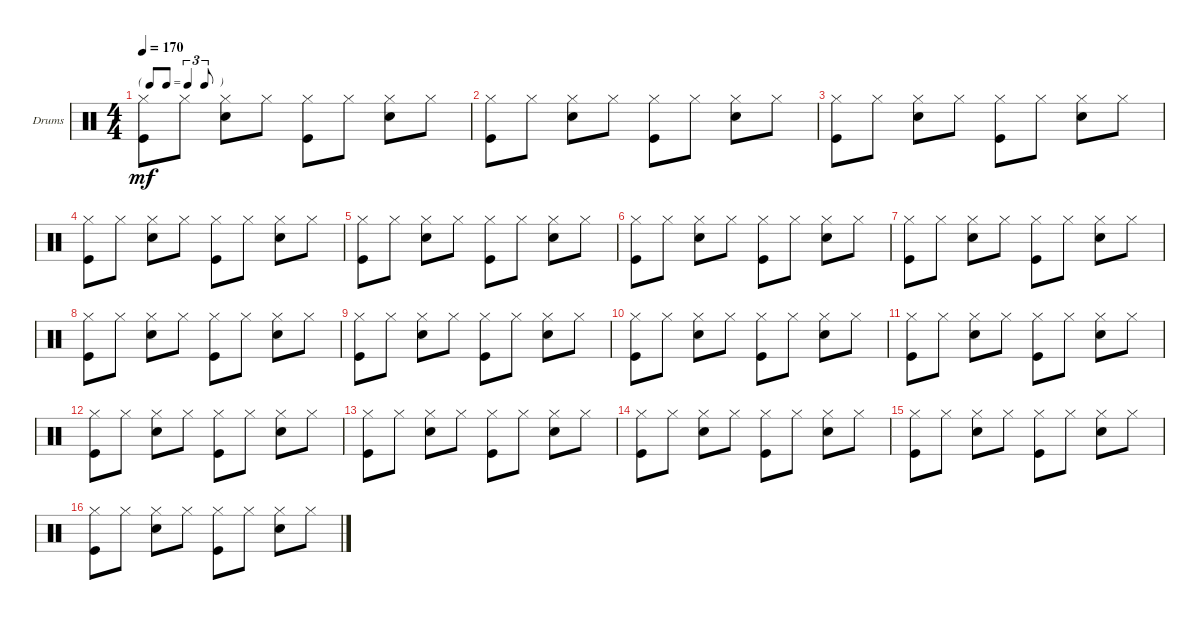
\defaultSystemsLayout 4
\bracketExtendMode groupsimilarinstruments
\firstSystemTrackNameOrientation horizontal
\otherSystemsTrackNameOrientation horizontal
\track ("Drumkit" "Drums") {instrument percussion}
\staff {score}
\articulation defaults
\ts (4 4)
\tf triplet8th
\tempo 170
\clef neutral
\scale
0.333333
\ks c
("Hi-Hat (closed)" "Kick (hit)").8{dy mf} "Hi-Hat (closed)".8 ("Hi-Hat (closed)" "Snare (hit) 2").8 "Hi-Hat (closed)".8 ("Hi-Hat (closed)" "Kick (hit)").8 "Hi-Hat (closed)".8 ("Hi-Hat (closed)" "Snare (hit) 2").8 "Hi-Hat (closed)".8 |
\scale
0.333333 ("Hi-Hat (closed)" "Kick (hit)").8 "Hi-Hat (closed)".8 ("Hi-Hat (closed)" "Snare (hit) 2").8 "Hi-Hat (closed)".8 ("Hi-Hat (closed)" "Kick (hit)").8 "Hi-Hat (closed)".8 ("Hi-Hat (closed)" "Snare (hit) 2").8 "Hi-Hat (closed)".8 |
\scale
0.333333 ("Hi-Hat (closed)" "Kick (hit)").8 "Hi-Hat (closed)".8 ("Hi-Hat (closed)" "Snare (hit) 2").8 "Hi-Hat (closed)".8 ("Hi-Hat (closed)" "Kick (hit)").8 "Hi-Hat (closed)".8 ("Hi-Hat (closed)" "Snare (hit) 2").8 "Hi-Hat (closed)".8 |
\scale
0.333333 ("Hi-Hat (closed)" "Kick (hit)").8 "Hi-Hat (closed)".8 ("Hi-Hat (closed)" "Snare (hit) 2").8 "Hi-Hat (closed)".8 ("Hi-Hat (closed)" "Kick (hit)").8 "Hi-Hat (closed)".8 ("Hi-Hat (closed)" "Snare (hit) 2").8 "Hi-Hat (closed)".8 |
\scale
0.333333 ("Hi-Hat (closed)" "Kick (hit)").8 "Hi-Hat (closed)".8 ("Hi-Hat (closed)" "Snare (hit) 2").8 "Hi-Hat (closed)".8 ("Hi-Hat (closed)" "Kick (hit)").8 "Hi-Hat (closed)".8 ("Hi-Hat (closed)" "Snare (hit) 2").8 "Hi-Hat (closed)".8 |
\scale
0.333333 ("Hi-Hat (closed)" "Kick (hit)").8 "Hi-Hat (closed)".8 ("Hi-Hat (closed)" "Snare (hit) 2").8 "Hi-Hat (closed)".8 ("Hi-Hat (closed)" "Kick (hit)").8 "Hi-Hat (closed)".8 ("Hi-Hat (closed)" "Snare (hit) 2").8 "Hi-Hat (closed)".8 |
\scale
0.333333 ("Hi-Hat (closed)" "Kick (hit)").8 "Hi-Hat (closed)".8 ("Hi-Hat (closed)" "Snare (hit) 2").8 "Hi-Hat (closed)".8 ("Hi-Hat (closed)" "Kick (hit)").8 "Hi-Hat (closed)".8 ("Hi-Hat (closed)" "Snare (hit) 2").8 "Hi-Hat (closed)".8 |
\scale
0.333333 ("Hi-Hat (closed)" "Kick (hit)").8 "Hi-Hat (closed)".8 ("Hi-Hat (closed)" "Snare (hit) 2").8 "Hi-Hat (closed)".8 ("Hi-Hat (closed)" "Kick (hit)").8 "Hi-Hat (closed)".8 ("Hi-Hat (closed)" "Snare (hit) 2").8 "Hi-Hat (closed)".8 |
\scale
0.333333 ("Hi-Hat (closed)" "Kick (hit)").8 "Hi-Hat (closed)".8 ("Hi-Hat (closed)" "Snare (hit) 2").8 "Hi-Hat (closed)".8 ("Hi-Hat (closed)" "Kick (hit)").8 "Hi-Hat (closed)".8 ("Hi-Hat (closed)" "Snare (hit) 2").8 "Hi-Hat (closed)".8 |
\scale
0.333333 ("Hi-Hat (closed)" "Kick (hit)").8 "Hi-Hat (closed)".8 ("Hi-Hat (closed)" "Snare (hit) 2").8 "Hi-Hat (closed)".8 ("Hi-Hat (closed)" "Kick (hit)").8 "Hi-Hat (closed)".8 ("Hi-Hat (closed)" "Snare (hit) 2").8 "Hi-Hat (closed)".8 |
\scale
0.333333 ("Hi-Hat (closed)" "Kick (hit)").8 "Hi-Hat (closed)".8 ("Hi-Hat (closed)" "Snare (hit) 2").8 "Hi-Hat (closed)".8 ("Hi-Hat (closed)" "Kick (hit)").8 "Hi-Hat (closed)".8 ("Hi-Hat (closed)" "Snare (hit) 2").8 "Hi-Hat (closed)".8 |
\scale
0.333333 ("Hi-Hat (closed)" "Kick (hit)").8 "Hi-Hat (closed)".8 ("Hi-Hat (closed)" "Snare (hit) 2").8 "Hi-Hat (closed)".8 ("Hi-Hat (closed)" "Kick (hit)").8 "Hi-Hat (closed)".8 ("Hi-Hat (closed)" "Snare (hit) 2").8 "Hi-Hat (closed)".8 |
\scale
0.333333 ("Hi-Hat (closed)" "Kick (hit)").8 "Hi-Hat (closed)".8 ("Hi-Hat (closed)" "Snare (hit) 2").8 "Hi-Hat (closed)".8 ("Hi-Hat (closed)" "Kick (hit)").8 "Hi-Hat (closed)".8 ("Hi-Hat (closed)" "Snare (hit) 2").8 "Hi-Hat (closed)".8 |
\scale
0.333333 ("Hi-Hat (closed)" "Kick (hit)").8 "Hi-Hat (closed)".8 ("Hi-Hat (closed)" "Snare (hit) 2").8 "Hi-Hat (closed)".8 ("Hi-Hat (closed)" "Kick (hit)").8 "Hi-Hat (closed)".8 ("Hi-Hat (closed)" "Snare (hit) 2").8 "Hi-Hat (closed)".8 |
\scale
0.333333 ("Hi-Hat (closed)" "Kick (hit)").8 "Hi-Hat (closed)".8 ("Hi-Hat (closed)" "Snare (hit) 2").8 "Hi-Hat (closed)".8 ("Hi-Hat (closed)" "Kick (hit)").8 "Hi-Hat (closed)".8 ("Hi-Hat (closed)" "Snare (hit) 2").8 "Hi-Hat (closed)".8 |
\scale
0.333333 ("Hi-Hat (closed)" "Kick (hit)").8 "Hi-Hat (closed)".8 ("Hi-Hat (closed)" "Snare (hit) 2").8 "Hi-Hat (closed)".8 ("Hi-Hat (closed)" "Kick (hit)").8 "Hi-Hat (closed)".8 ("Hi-Hat (closed)" "Snare (hit) 2").8 "Hi-Hat (closed)".8
